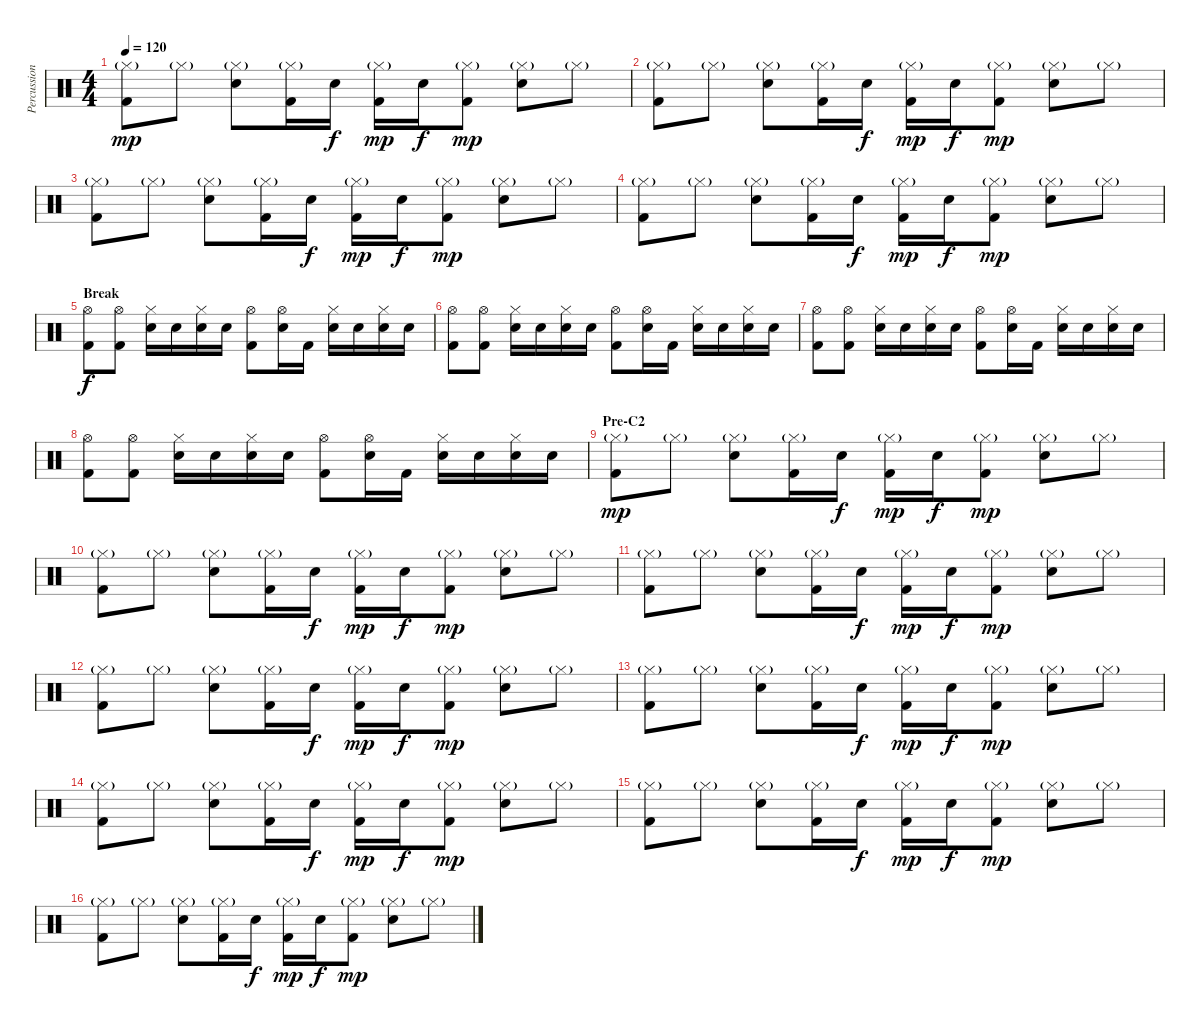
\track ("Percussions" "Percussion") {instrument percussion}
\staff {score}
\articulation defaults
\ts (4 4)
\tempo 120
\clef neutral
\ks c
("Hi-Hat (closed)"{g} "Kick (hit) 2").8{dy mp} "Hi-Hat (closed)"{g}.8 ("Hi-Hat (closed)"{g} "Snare (hit) 2").8 ("Hi-Hat (closed)"{g} "Kick (hit) 2").16 "Snare (hit) 2".16{dy f} ("Hi-Hat (closed)"{g} "Kick (hit) 2").16{dy mp} "Snare (hit) 2".16{dy f} ("Hi-Hat (closed)"{g} "Kick (hit) 2").8{dy mp} ("Hi-Hat (closed)"{g} "Snare (hit) 2").8 "Hi-Hat (closed)"{g}.8 |
("Hi-Hat (closed)"{g} "Kick (hit) 2").8 "Hi-Hat (closed)"{g}.8 ("Hi-Hat (closed)"{g} "Snare (hit) 2").8 ("Hi-Hat (closed)"{g} "Kick (hit) 2").16 "Snare (hit) 2".16{dy f} ("Hi-Hat (closed)"{g} "Kick (hit) 2").16{dy mp} "Snare (hit) 2".16{dy f} ("Hi-Hat (closed)"{g} "Kick (hit) 2").8{dy mp} ("Hi-Hat (closed)"{g} "Snare (hit) 2").8 "Hi-Hat (closed)"{g}.8 |
("Hi-Hat (closed)"{g} "Kick (hit) 2").8 "Hi-Hat (closed)"{g}.8 ("Hi-Hat (closed)"{g} "Snare (hit) 2").8 ("Hi-Hat (closed)"{g} "Kick (hit) 2").16 "Snare (hit) 2".16{dy f} ("Hi-Hat (closed)"{g} "Kick (hit) 2").16{dy mp} "Snare (hit) 2".16{dy f} ("Hi-Hat (closed)"{g} "Kick (hit) 2").8{dy mp} ("Hi-Hat (closed)"{g} "Snare (hit) 2").8 "Hi-Hat (closed)"{g}.8 |
("Hi-Hat (closed)"{g} "Kick (hit) 2").8 "Hi-Hat (closed)"{g}.8 ("Hi-Hat (closed)"{g} "Snare (hit) 2").8 ("Hi-Hat (closed)"{g} "Kick (hit) 2").16 "Snare (hit) 2".16{dy f} ("Hi-Hat (closed)"{g} "Kick (hit) 2").16{dy mp} "Snare (hit) 2".16{dy f} ("Hi-Hat (closed)"{g} "Kick (hit) 2").8{dy mp} ("Hi-Hat (closed)"{g} "Snare (hit) 2").8 "Hi-Hat (closed)"{g}.8 |
\section ("" "Break")
("Hi-Hat (open)" "Kick (hit) 2").8{dy f} ("Hi-Hat (open)" "Kick (hit) 2").8 ("Hi-Hat (closed)" "Electric Snare (hit)").16 "Electric Snare (hit)".16 ("Hi-Hat (closed)" "Electric Snare (hit)").16 "Electric Snare (hit)".16 ("Hi-Hat (open)" "Kick (hit) 2").8 ("Hi-Hat (open)" "Electric Snare (hit)").16 "Kick (hit) 2".16 ("Hi-Hat (closed)" "Electric Snare (hit)").16 "Electric Snare (hit)".16 ("Hi-Hat (closed)" "Electric Snare (hit)").16 "Electric Snare (hit)".16 |
("Hi-Hat (open)" "Kick (hit) 2").8 ("Hi-Hat (open)" "Kick (hit) 2").8 ("Hi-Hat (closed)" "Electric Snare (hit)").16 "Electric Snare (hit)".16 ("Hi-Hat (closed)" "Electric Snare (hit)").16 "Electric Snare (hit)".16 ("Hi-Hat (open)" "Kick (hit) 2").8 ("Hi-Hat (open)" "Electric Snare (hit)").16 "Kick (hit) 2".16 ("Hi-Hat (closed)" "Electric Snare (hit)").16 "Electric Snare (hit)".16 ("Hi-Hat (closed)" "Electric Snare (hit)").16 "Electric Snare (hit)".16 |
("Hi-Hat (open)" "Kick (hit) 2").8 ("Hi-Hat (open)" "Kick (hit) 2").8 ("Hi-Hat (closed)" "Electric Snare (hit)").16 "Electric Snare (hit)".16 ("Hi-Hat (closed)" "Electric Snare (hit)").16 "Electric Snare (hit)".16 ("Hi-Hat (open)" "Kick (hit) 2").8 ("Hi-Hat (open)" "Electric Snare (hit)").16 "Kick (hit) 2".16 ("Hi-Hat (closed)" "Electric Snare (hit)").16 "Electric Snare (hit)".16 ("Hi-Hat (closed)" "Electric Snare (hit)").16 "Electric Snare (hit)".16 |
("Hi-Hat (open)" "Kick (hit) 2").8 ("Hi-Hat (open)" "Kick (hit) 2").8 ("Hi-Hat (closed)" "Electric Snare (hit)").16 "Electric Snare (hit)".16 ("Hi-Hat (closed)" "Electric Snare (hit)").16 "Electric Snare (hit)".16 ("Hi-Hat (open)" "Kick (hit) 2").8 ("Hi-Hat (open)" "Electric Snare (hit)").16 "Kick (hit) 2".16 ("Hi-Hat (closed)" "Electric Snare (hit)").16 "Electric Snare (hit)".16 ("Hi-Hat (closed)" "Electric Snare (hit)").16 "Electric Snare (hit)".16 |
\section ("" "Pre-C2")
("Hi-Hat (closed)"{g} "Kick (hit) 2").8{dy mp} "Hi-Hat (closed)"{g}.8 ("Hi-Hat (closed)"{g} "Snare (hit) 2").8 ("Hi-Hat (closed)"{g} "Kick (hit) 2").16 "Snare (hit) 2".16{dy f} ("Hi-Hat (closed)"{g} "Kick (hit) 2").16{dy mp} "Snare (hit) 2".16{dy f} ("Hi-Hat (closed)"{g} "Kick (hit) 2").8{dy mp} ("Hi-Hat (closed)"{g} "Snare (hit) 2").8 "Hi-Hat (closed)"{g}.8 |
("Hi-Hat (closed)"{g} "Kick (hit) 2").8 "Hi-Hat (closed)"{g}.8 ("Hi-Hat (closed)"{g} "Snare (hit) 2").8 ("Hi-Hat (closed)"{g} "Kick (hit) 2").16 "Snare (hit) 2".16{dy f} ("Hi-Hat (closed)"{g} "Kick (hit) 2").16{dy mp} "Snare (hit) 2".16{dy f} ("Hi-Hat (closed)"{g} "Kick (hit) 2").8{dy mp} ("Hi-Hat (closed)"{g} "Snare (hit) 2").8 "Hi-Hat (closed)"{g}.8 |
("Hi-Hat (closed)"{g} "Kick (hit) 2").8 "Hi-Hat (closed)"{g}.8 ("Hi-Hat (closed)"{g} "Snare (hit) 2").8 ("Hi-Hat (closed)"{g} "Kick (hit) 2").16 "Snare (hit) 2".16{dy f} ("Hi-Hat (closed)"{g} "Kick (hit) 2").16{dy mp} "Snare (hit) 2".16{dy f} ("Hi-Hat (closed)"{g} "Kick (hit) 2").8{dy mp} ("Hi-Hat (closed)"{g} "Snare (hit) 2").8 "Hi-Hat (closed)"{g}.8 |
("Hi-Hat (closed)"{g} "Kick (hit) 2").8 "Hi-Hat (closed)"{g}.8 ("Hi-Hat (closed)"{g} "Snare (hit) 2").8 ("Hi-Hat (closed)"{g} "Kick (hit) 2").16 "Snare (hit) 2".16{dy f} ("Hi-Hat (closed)"{g} "Kick (hit) 2").16{dy mp} "Snare (hit) 2".16{dy f} ("Hi-Hat (closed)"{g} "Kick (hit) 2").8{dy mp} ("Hi-Hat (closed)"{g} "Snare (hit) 2").8 "Hi-Hat (closed)"{g}.8 |
("Hi-Hat (closed)"{g} "Kick (hit) 2").8 "Hi-Hat (closed)"{g}.8 ("Hi-Hat (closed)"{g} "Snare (hit) 2").8 ("Hi-Hat (closed)"{g} "Kick (hit) 2").16 "Snare (hit) 2".16{dy f} ("Hi-Hat (closed)"{g} "Kick (hit) 2").16{dy mp} "Snare (hit) 2".16{dy f} ("Hi-Hat (closed)"{g} "Kick (hit) 2").8{dy mp} ("Hi-Hat (closed)"{g} "Snare (hit) 2").8 "Hi-Hat (closed)"{g}.8 |
("Hi-Hat (closed)"{g} "Kick (hit) 2").8 "Hi-Hat (closed)"{g}.8 ("Hi-Hat (closed)"{g} "Snare (hit) 2").8 ("Hi-Hat (closed)"{g} "Kick (hit) 2").16 "Snare (hit) 2".16{dy f} ("Hi-Hat (closed)"{g} "Kick (hit) 2").16{dy mp} "Snare (hit) 2".16{dy f} ("Hi-Hat (closed)"{g} "Kick (hit) 2").8{dy mp} ("Hi-Hat (closed)"{g} "Snare (hit) 2").8 "Hi-Hat (closed)"{g}.8 |
("Hi-Hat (closed)"{g} "Kick (hit) 2").8 "Hi-Hat (closed)"{g}.8 ("Hi-Hat (closed)"{g} "Snare (hit) 2").8 ("Hi-Hat (closed)"{g} "Kick (hit) 2").16 "Snare (hit) 2".16{dy f} ("Hi-Hat (closed)"{g} "Kick (hit) 2").16{dy mp} "Snare (hit) 2".16{dy f} ("Hi-Hat (closed)"{g} "Kick (hit) 2").8{dy mp} ("Hi-Hat (closed)"{g} "Snare (hit) 2").8 "Hi-Hat (closed)"{g}.8 |
("Hi-Hat (closed)"{g} "Kick (hit) 2").8 "Hi-Hat (closed)"{g}.8 ("Hi-Hat (closed)"{g} "Snare (hit) 2").8 ("Hi-Hat (closed)"{g} "Kick (hit) 2").16 "Snare (hit) 2".16{dy f} ("Hi-Hat (closed)"{g} "Kick (hit) 2").16{dy mp} "Snare (hit) 2".16{dy f} ("Hi-Hat (closed)"{g} "Kick (hit) 2").8{dy mp} ("Hi-Hat (closed)"{g} "Snare (hit) 2").8 "Hi-Hat (closed)"{g}.8
